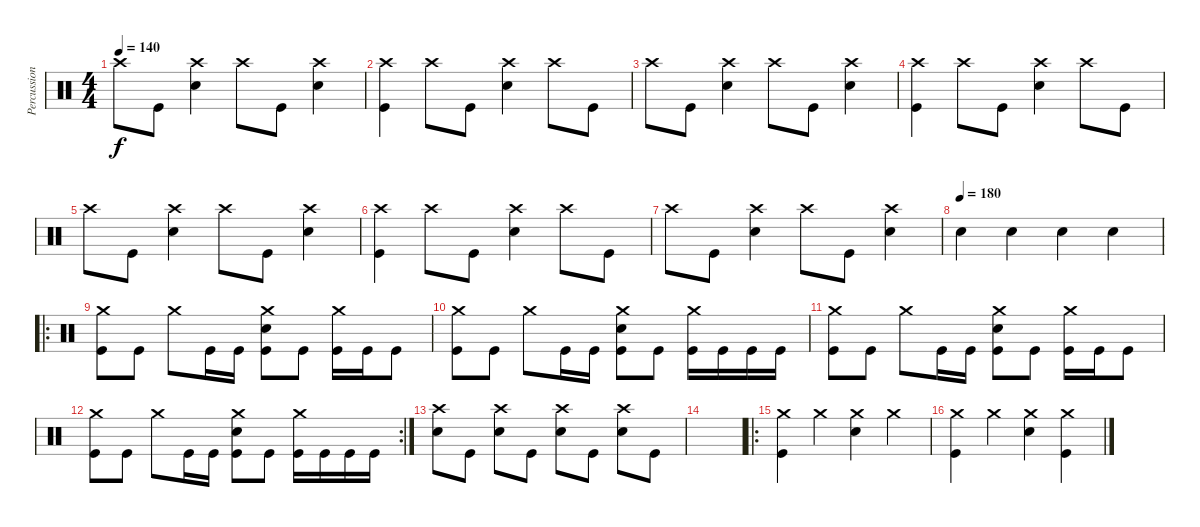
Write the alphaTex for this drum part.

\track ("Percussion" "Percussion") {instrument percussion}
\staff {score}
\articulation defaults
\ts (4 4)
\tempo 140
\clef neutral
\ks c "Crash high (hit)".8{dy f} "Kick (hit)".8
("Crash high (hit)" "Snare (hit) 2").4 "Crash high (hit)".8 "Kick (hit)".8 ("Crash high (hit)" "Snare (hit) 2").4 |
("Crash high (hit)" "Kick (hit)").4 "Crash high (hit)".8 "Kick (hit)".8 ("Crash high (hit)" "Snare (hit) 2").4 "Crash high (hit)".8 "Kick (hit)".8 |
"Crash high (hit)".8 "Kick (hit)".8 ("Crash high (hit)" "Snare (hit) 2").4 "Crash high (hit)".8 "Kick (hit)".8 ("Crash high (hit)" "Snare (hit) 2").4 |
("Crash high (hit)" "Kick (hit)").4 "Crash high (hit)".8 "Kick (hit)".8 ("Crash high (hit)" "Snare (hit) 2").4 "Crash high (hit)".8 "Kick (hit)".8 |
"Crash high (hit)".8 "Kick (hit)".8 ("Crash high (hit)" "Snare (hit) 2").4 "Crash high (hit)".8 "Kick (hit)".8 ("Crash high (hit)" "Snare (hit) 2").4 |
("Crash high (hit)" "Kick (hit)").4 "Crash high (hit)".8 "Kick (hit)".8 ("Crash high (hit)" "Snare (hit) 2").4 "Crash high (hit)".8 "Kick (hit)".8 |
"Crash high (hit)".8 "Kick (hit)".8 ("Crash high (hit)" "Snare (hit) 2").4 "Crash high (hit)".8 "Kick (hit)".8 ("Crash high (hit)" "Snare (hit) 2").4 |
\tempo (180)
"Snare (hit) 2".4 "Snare (hit) 2".4 "Snare (hit) 2".4 "Snare (hit) 2".4 |
\ro
("Crash medium (hit)" "Kick (hit)").8 "Kick (hit)".8 "Crash medium (hit)".8 "Kick (hit)".16 "Kick (hit)".16 ("Crash medium (hit)" "Snare (hit) 2" "Kick (hit)").8 "Kick (hit)".8 ("Crash medium (hit)" "Kick (hit)").16 "Kick (hit)".16 "Kick (hit)".8 |
("Crash medium (hit)" "Kick (hit)").8 "Kick (hit)".8 "Crash medium (hit)".8 "Kick (hit)".16 "Kick (hit)".16 ("Crash medium (hit)" "Snare (hit) 2" "Kick (hit)").8 "Kick (hit)".8 ("Crash medium (hit)" "Kick (hit)").16 "Kick (hit)".16 "Kick (hit)".16 "Kick (hit)".16 |
("Crash medium (hit)" "Kick (hit)").8 "Kick (hit)".8 "Crash medium (hit)".8 "Kick (hit)".16 "Kick (hit)".16 ("Crash medium (hit)" "Snare (hit) 2" "Kick (hit)").8 "Kick (hit)".8 ("Crash medium (hit)" "Kick (hit)").16 "Kick (hit)".16 "Kick (hit)".8 |
\rc 2
("Crash medium (hit)" "Kick (hit)").8 "Kick (hit)".8 "Crash medium (hit)".8 "Kick (hit)".16 "Kick (hit)".16 ("Crash medium (hit)" "Snare (hit) 2" "Kick (hit)").8 "Kick (hit)".8 ("Crash medium (hit)" "Kick (hit)").16 "Kick (hit)".16 "Kick (hit)".16 "Kick (hit)".16 |
("Crash high (hit)" "Snare (hit) 2").8 "Kick (hit)".8 ("Crash high (hit)" "Snare (hit) 2").8 "Kick (hit)".8 ("Crash high (hit)" "Snare (hit) 2").8 "Kick (hit)".8 ("Crash high (hit)" "Snare (hit) 2").8 "Kick (hit)".8 |
|
\ro
("Crash medium (hit)" "Kick (hit)").4 "Crash medium (hit)".4 ("Crash medium (hit)" "Snare (hit) 2").4 "Crash medium (hit)".4 |
("Crash medium (hit)" "Kick (hit)").4 "Crash medium (hit)".4 ("Crash medium (hit)" "Snare (hit) 2").4 ("Crash medium (hit)" "Kick (hit)").4
